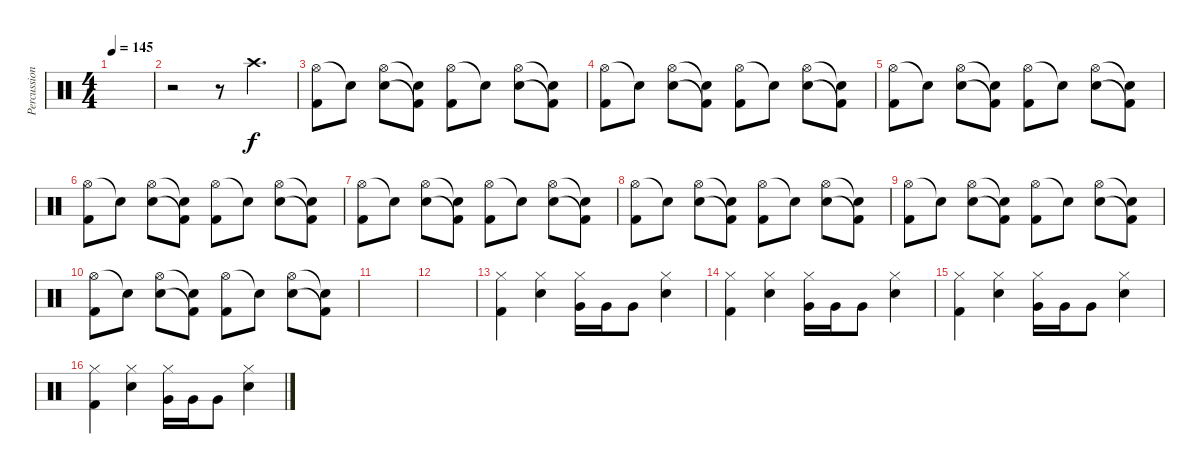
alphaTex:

\track ("Percussion" "Percussion") {instrument percussion}
\staff {score}
\articulation defaults
\ts (4 4)
\tempo 145
\clef neutral
\ks c
|
r.2 r.8 "Crash high (hit)".4{d} |
("Hi-Hat (open)" "Kick (hit) 2").8 "Snare (hit)"{t}.8 ("Hi-Hat (open)" "Electric Snare (hit)").8 ("Snare (hit)"{t} "Kick (hit) 2"{t}).8 ("Hi-Hat (open)" "Kick (hit) 2").8 "Snare (hit)"{t}.8 ("Hi-Hat (open)" "Electric Snare (hit)").8 ("Snare (hit)"{t} "Kick (hit) 2"{t}).8 |
("Hi-Hat (open)" "Kick (hit) 2").8 "Snare (hit)"{t}.8 ("Hi-Hat (open)" "Electric Snare (hit)").8 ("Snare (hit)"{t} "Kick (hit) 2"{t}).8 ("Hi-Hat (open)" "Kick (hit) 2").8 "Snare (hit)"{t}.8 ("Hi-Hat (open)" "Electric Snare (hit)").8 ("Snare (hit)"{t} "Kick (hit) 2"{t}).8 |
("Hi-Hat (open)" "Kick (hit) 2").8 "Snare (hit)"{t}.8 ("Hi-Hat (open)" "Electric Snare (hit)").8 ("Snare (hit)"{t} "Kick (hit) 2"{t}).8 ("Hi-Hat (open)" "Kick (hit) 2").8 "Snare (hit)"{t}.8 ("Hi-Hat (open)" "Electric Snare (hit)").8 ("Snare (hit)"{t} "Kick (hit) 2"{t}).8 |
("Hi-Hat (open)" "Kick (hit) 2").8 "Snare (hit)"{t}.8 ("Hi-Hat (open)" "Electric Snare (hit)").8 ("Snare (hit)"{t} "Kick (hit) 2"{t}).8 ("Hi-Hat (open)" "Kick (hit) 2").8 "Snare (hit)"{t}.8 ("Hi-Hat (open)" "Electric Snare (hit)").8 ("Snare (hit)"{t} "Kick (hit) 2"{t}).8 |
("Hi-Hat (open)" "Kick (hit) 2").8 "Snare (hit)"{t}.8 ("Hi-Hat (open)" "Electric Snare (hit)").8 ("Snare (hit)"{t} "Kick (hit) 2"{t}).8 ("Hi-Hat (open)" "Kick (hit) 2").8 "Snare (hit)"{t}.8 ("Hi-Hat (open)" "Electric Snare (hit)").8 ("Snare (hit)"{t} "Kick (hit) 2"{t}).8 |
("Hi-Hat (open)" "Kick (hit) 2").8 "Snare (hit)"{t}.8 ("Hi-Hat (open)" "Electric Snare (hit)").8 ("Snare (hit)"{t} "Kick (hit) 2"{t}).8 ("Hi-Hat (open)" "Kick (hit) 2").8 "Snare (hit)"{t}.8 ("Hi-Hat (open)" "Electric Snare (hit)").8 ("Snare (hit)"{t} "Kick (hit) 2"{t}).8 |
("Hi-Hat (open)" "Kick (hit) 2").8 "Snare (hit)"{t}.8 ("Hi-Hat (open)" "Electric Snare (hit)").8 ("Snare (hit)"{t} "Kick (hit) 2"{t}).8 ("Hi-Hat (open)" "Kick (hit) 2").8 "Snare (hit)"{t}.8 ("Hi-Hat (open)" "Electric Snare (hit)").8 ("Snare (hit)"{t} "Kick (hit) 2"{t}).8 |
("Hi-Hat (open)" "Kick (hit) 2").8 "Snare (hit)"{t}.8 ("Hi-Hat (open)" "Electric Snare (hit)").8 ("Snare (hit)"{t} "Kick (hit) 2"{t}).8 ("Hi-Hat (open)" "Kick (hit) 2").8 "Snare (hit)"{t}.8 ("Hi-Hat (open)" "Electric Snare (hit)").8 ("Snare (hit)"{t} "Kick (hit) 2"{t}).8 |
|
|
("Hi-Hat (closed)" "Kick (hit) 2").4 ("Hi-Hat (closed)" "Electric Snare (hit)").4 ("Hi-Hat (closed)" "Very Low Tom (hit)").16 "Very Low Tom (hit)".16 "Very Low Tom (hit)".8 ("Hi-Hat (closed)" "Electric Snare (hit)").4 |
("Hi-Hat (closed)" "Kick (hit) 2").4 ("Hi-Hat (closed)" "Electric Snare (hit)").4 ("Hi-Hat (closed)" "Very Low Tom (hit)").16 "Very Low Tom (hit)".16 "Very Low Tom (hit)".8 ("Hi-Hat (closed)" "Electric Snare (hit)").4 |
("Hi-Hat (closed)" "Kick (hit) 2").4 ("Hi-Hat (closed)" "Electric Snare (hit)").4 ("Hi-Hat (closed)" "Very Low Tom (hit)").16 "Very Low Tom (hit)".16 "Very Low Tom (hit)".8 ("Hi-Hat (closed)" "Electric Snare (hit)").4 |
("Hi-Hat (closed)" "Kick (hit) 2").4 ("Hi-Hat (closed)" "Electric Snare (hit)").4 ("Hi-Hat (closed)" "Very Low Tom (hit)").16 "Very Low Tom (hit)".16 "Very Low Tom (hit)".8 ("Hi-Hat (closed)" "Electric Snare (hit)").4
